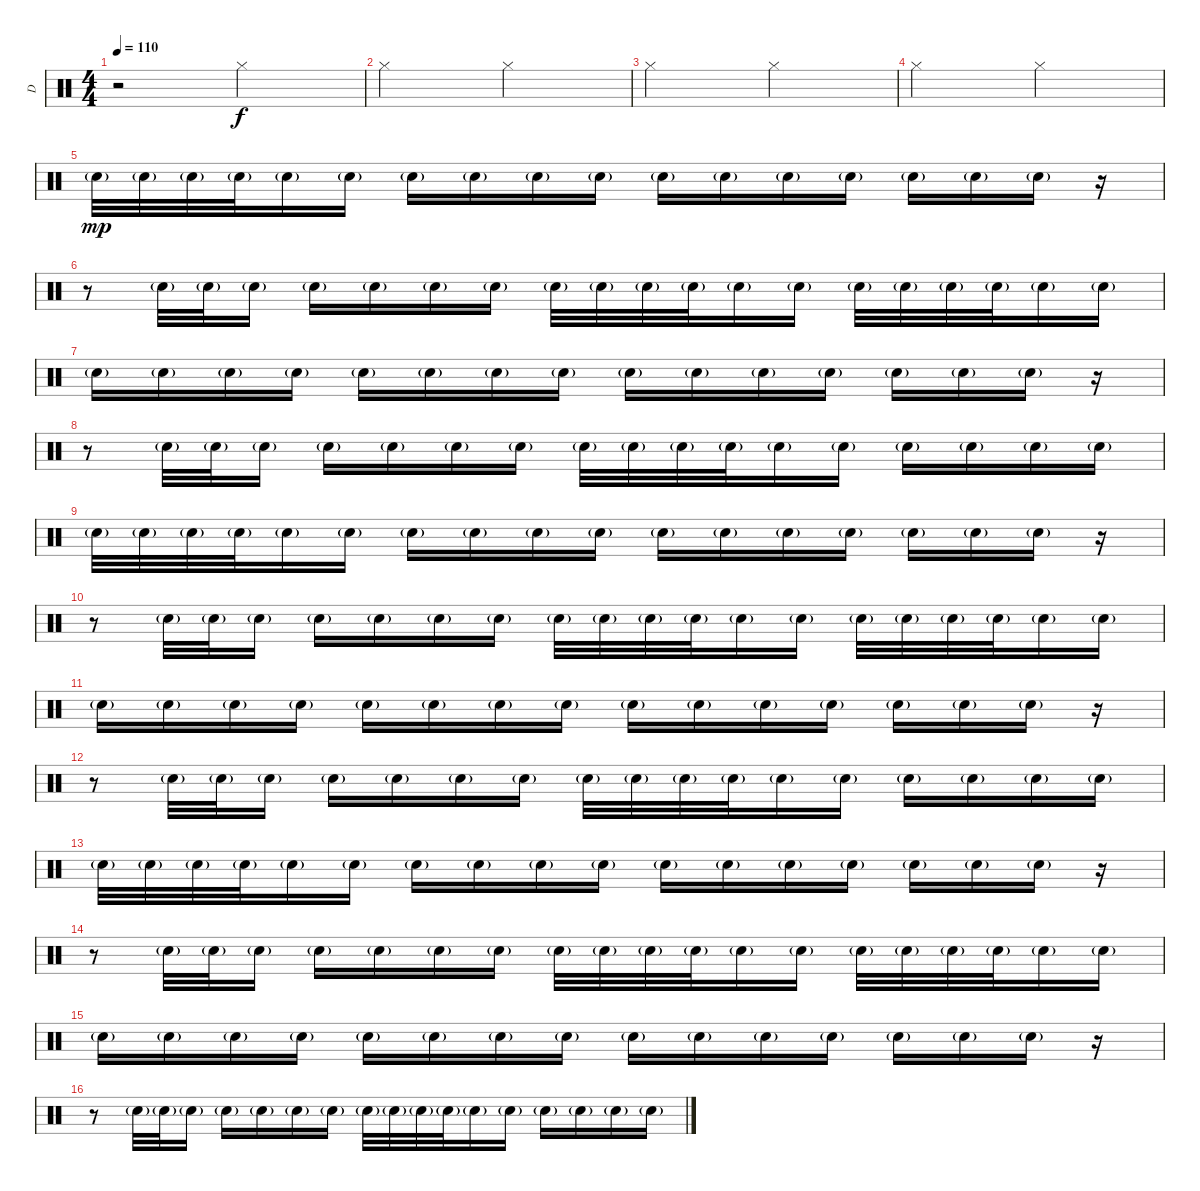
\track ("D" "D") {instrument percussion}
\staff {score}
\articulation defaults
\ts (4 4)
\tempo 110
\clef neutral
\ks c
r.2{dy f} "Hi-Hat (closed)".2 |
"Hi-Hat (closed)".2 "Hi-Hat (closed)".2 |
"Hi-Hat (closed)".2 "Hi-Hat (closed)".2 |
"Hi-Hat (closed)".2 "Hi-Hat (closed)".2 |
"Electric Snare (hit)"{g}.32{dy mp volume 16} "Electric Snare (hit)"{g}.32 "Electric Snare (hit)"{g}.32 "Electric Snare (hit)"{g}.32 "Electric Snare (hit)"{g}.16 "Electric Snare (hit)"{g}.16 "Electric Snare (hit)"{g}.16 "Electric Snare (hit)"{g}.16 "Electric Snare (hit)"{g}.16 "Electric Snare (hit)"{g}.16 "Electric Snare (hit)"{g}.16 "Electric Snare (hit)"{g}.16 "Electric Snare (hit)"{g}.16 "Electric Snare (hit)"{g}.16 "Electric Snare (hit)"{g}.16 "Electric Snare (hit)"{g}.16 "Electric Snare (hit)"{g}.16 r.16 |
r.8 "Electric Snare (hit)"{g}.32 "Electric Snare (hit)"{g}.32 "Electric Snare (hit)"{g}.16 "Electric Snare (hit)"{g}.16 "Electric Snare (hit)"{g}.16 "Electric Snare (hit)"{g}.16 "Electric Snare (hit)"{g}.16 "Electric Snare (hit)"{g}.32 "Electric Snare (hit)"{g}.32 "Electric Snare (hit)"{g}.32 "Electric Snare (hit)"{g}.32 "Electric Snare (hit)"{g}.16 "Electric Snare (hit)"{g}.16 "Electric Snare (hit)"{g}.32 "Electric Snare (hit)"{g}.32 "Electric Snare (hit)"{g}.32 "Electric Snare (hit)"{g}.32 "Electric Snare (hit)"{g}.16 "Electric Snare (hit)"{g}.16 |
"Electric Snare (hit)"{g}.16 "Electric Snare (hit)"{g}.16 "Electric Snare (hit)"{g}.16 "Electric Snare (hit)"{g}.16 "Electric Snare (hit)"{g}.16 "Electric Snare (hit)"{g}.16 "Electric Snare (hit)"{g}.16 "Electric Snare (hit)"{g}.16 "Electric Snare (hit)"{g}.16 "Electric Snare (hit)"{g}.16 "Electric Snare (hit)"{g}.16 "Electric Snare (hit)"{g}.16 "Electric Snare (hit)"{g}.16 "Electric Snare (hit)"{g}.16 "Electric Snare (hit)"{g}.16 r.16 |
r.8 "Electric Snare (hit)"{g}.32 "Electric Snare (hit)"{g}.32 "Electric Snare (hit)"{g}.16 "Electric Snare (hit)"{g}.16 "Electric Snare (hit)"{g}.16 "Electric Snare (hit)"{g}.16 "Electric Snare (hit)"{g}.16 "Electric Snare (hit)"{g}.32 "Electric Snare (hit)"{g}.32 "Electric Snare (hit)"{g}.32 "Electric Snare (hit)"{g}.32 "Electric Snare (hit)"{g}.16 "Electric Snare (hit)"{g}.16 "Electric Snare (hit)"{g}.16 "Electric Snare (hit)"{g}.16 "Electric Snare (hit)"{g}.16 "Electric Snare (hit)"{g}.16 |
"Electric Snare (hit)"{g}.32 "Electric Snare (hit)"{g}.32 "Electric Snare (hit)"{g}.32 "Electric Snare (hit)"{g}.32 "Electric Snare (hit)"{g}.16 "Electric Snare (hit)"{g}.16 "Electric Snare (hit)"{g}.16 "Electric Snare (hit)"{g}.16 "Electric Snare (hit)"{g}.16 "Electric Snare (hit)"{g}.16 "Electric Snare (hit)"{g}.16 "Electric Snare (hit)"{g}.16 "Electric Snare (hit)"{g}.16 "Electric Snare (hit)"{g}.16 "Electric Snare (hit)"{g}.16 "Electric Snare (hit)"{g}.16 "Electric Snare (hit)"{g}.16 r.16 |
r.8 "Electric Snare (hit)"{g}.32 "Electric Snare (hit)"{g}.32 "Electric Snare (hit)"{g}.16 "Electric Snare (hit)"{g}.16 "Electric Snare (hit)"{g}.16 "Electric Snare (hit)"{g}.16 "Electric Snare (hit)"{g}.16 "Electric Snare (hit)"{g}.32 "Electric Snare (hit)"{g}.32 "Electric Snare (hit)"{g}.32 "Electric Snare (hit)"{g}.32 "Electric Snare (hit)"{g}.16 "Electric Snare (hit)"{g}.16 "Electric Snare (hit)"{g}.32 "Electric Snare (hit)"{g}.32 "Electric Snare (hit)"{g}.32 "Electric Snare (hit)"{g}.32 "Electric Snare (hit)"{g}.16 "Electric Snare (hit)"{g}.16 |
"Electric Snare (hit)"{g}.16 "Electric Snare (hit)"{g}.16 "Electric Snare (hit)"{g}.16 "Electric Snare (hit)"{g}.16 "Electric Snare (hit)"{g}.16 "Electric Snare (hit)"{g}.16 "Electric Snare (hit)"{g}.16 "Electric Snare (hit)"{g}.16 "Electric Snare (hit)"{g}.16 "Electric Snare (hit)"{g}.16 "Electric Snare (hit)"{g}.16 "Electric Snare (hit)"{g}.16 "Electric Snare (hit)"{g}.16 "Electric Snare (hit)"{g}.16 "Electric Snare (hit)"{g}.16 r.16 |
r.8 "Electric Snare (hit)"{g}.32 "Electric Snare (hit)"{g}.32 "Electric Snare (hit)"{g}.16 "Electric Snare (hit)"{g}.16 "Electric Snare (hit)"{g}.16 "Electric Snare (hit)"{g}.16 "Electric Snare (hit)"{g}.16 "Electric Snare (hit)"{g}.32 "Electric Snare (hit)"{g}.32 "Electric Snare (hit)"{g}.32 "Electric Snare (hit)"{g}.32 "Electric Snare (hit)"{g}.16 "Electric Snare (hit)"{g}.16 "Electric Snare (hit)"{g}.16 "Electric Snare (hit)"{g}.16 "Electric Snare (hit)"{g}.16 "Electric Snare (hit)"{g}.16 |
"Electric Snare (hit)"{g}.32 "Electric Snare (hit)"{g}.32 "Electric Snare (hit)"{g}.32 "Electric Snare (hit)"{g}.32 "Electric Snare (hit)"{g}.16 "Electric Snare (hit)"{g}.16 "Electric Snare (hit)"{g}.16 "Electric Snare (hit)"{g}.16 "Electric Snare (hit)"{g}.16 "Electric Snare (hit)"{g}.16 "Electric Snare (hit)"{g}.16 "Electric Snare (hit)"{g}.16 "Electric Snare (hit)"{g}.16 "Electric Snare (hit)"{g}.16 "Electric Snare (hit)"{g}.16 "Electric Snare (hit)"{g}.16 "Electric Snare (hit)"{g}.16 r.16 |
r.8 "Electric Snare (hit)"{g}.32 "Electric Snare (hit)"{g}.32 "Electric Snare (hit)"{g}.16 "Electric Snare (hit)"{g}.16 "Electric Snare (hit)"{g}.16 "Electric Snare (hit)"{g}.16 "Electric Snare (hit)"{g}.16 "Electric Snare (hit)"{g}.32 "Electric Snare (hit)"{g}.32 "Electric Snare (hit)"{g}.32 "Electric Snare (hit)"{g}.32 "Electric Snare (hit)"{g}.16 "Electric Snare (hit)"{g}.16 "Electric Snare (hit)"{g}.32 "Electric Snare (hit)"{g}.32 "Electric Snare (hit)"{g}.32 "Electric Snare (hit)"{g}.32 "Electric Snare (hit)"{g}.16 "Electric Snare (hit)"{g}.16 |
"Electric Snare (hit)"{g}.16 "Electric Snare (hit)"{g}.16 "Electric Snare (hit)"{g}.16 "Electric Snare (hit)"{g}.16 "Electric Snare (hit)"{g}.16 "Electric Snare (hit)"{g}.16 "Electric Snare (hit)"{g}.16 "Electric Snare (hit)"{g}.16 "Electric Snare (hit)"{g}.16 "Electric Snare (hit)"{g}.16 "Electric Snare (hit)"{g}.16 "Electric Snare (hit)"{g}.16 "Electric Snare (hit)"{g}.16 "Electric Snare (hit)"{g}.16 "Electric Snare (hit)"{g}.16 r.16 |
r.8 "Electric Snare (hit)"{g}.32 "Electric Snare (hit)"{g}.32 "Electric Snare (hit)"{g}.16 "Electric Snare (hit)"{g}.16 "Electric Snare (hit)"{g}.16 "Electric Snare (hit)"{g}.16 "Electric Snare (hit)"{g}.16 "Electric Snare (hit)"{g}.32 "Electric Snare (hit)"{g}.32 "Electric Snare (hit)"{g}.32 "Electric Snare (hit)"{g}.32 "Electric Snare (hit)"{g}.16 "Electric Snare (hit)"{g}.16 "Electric Snare (hit)"{g}.16 "Electric Snare (hit)"{g}.16 "Electric Snare (hit)"{g}.16 "Electric Snare (hit)"{g}.16
